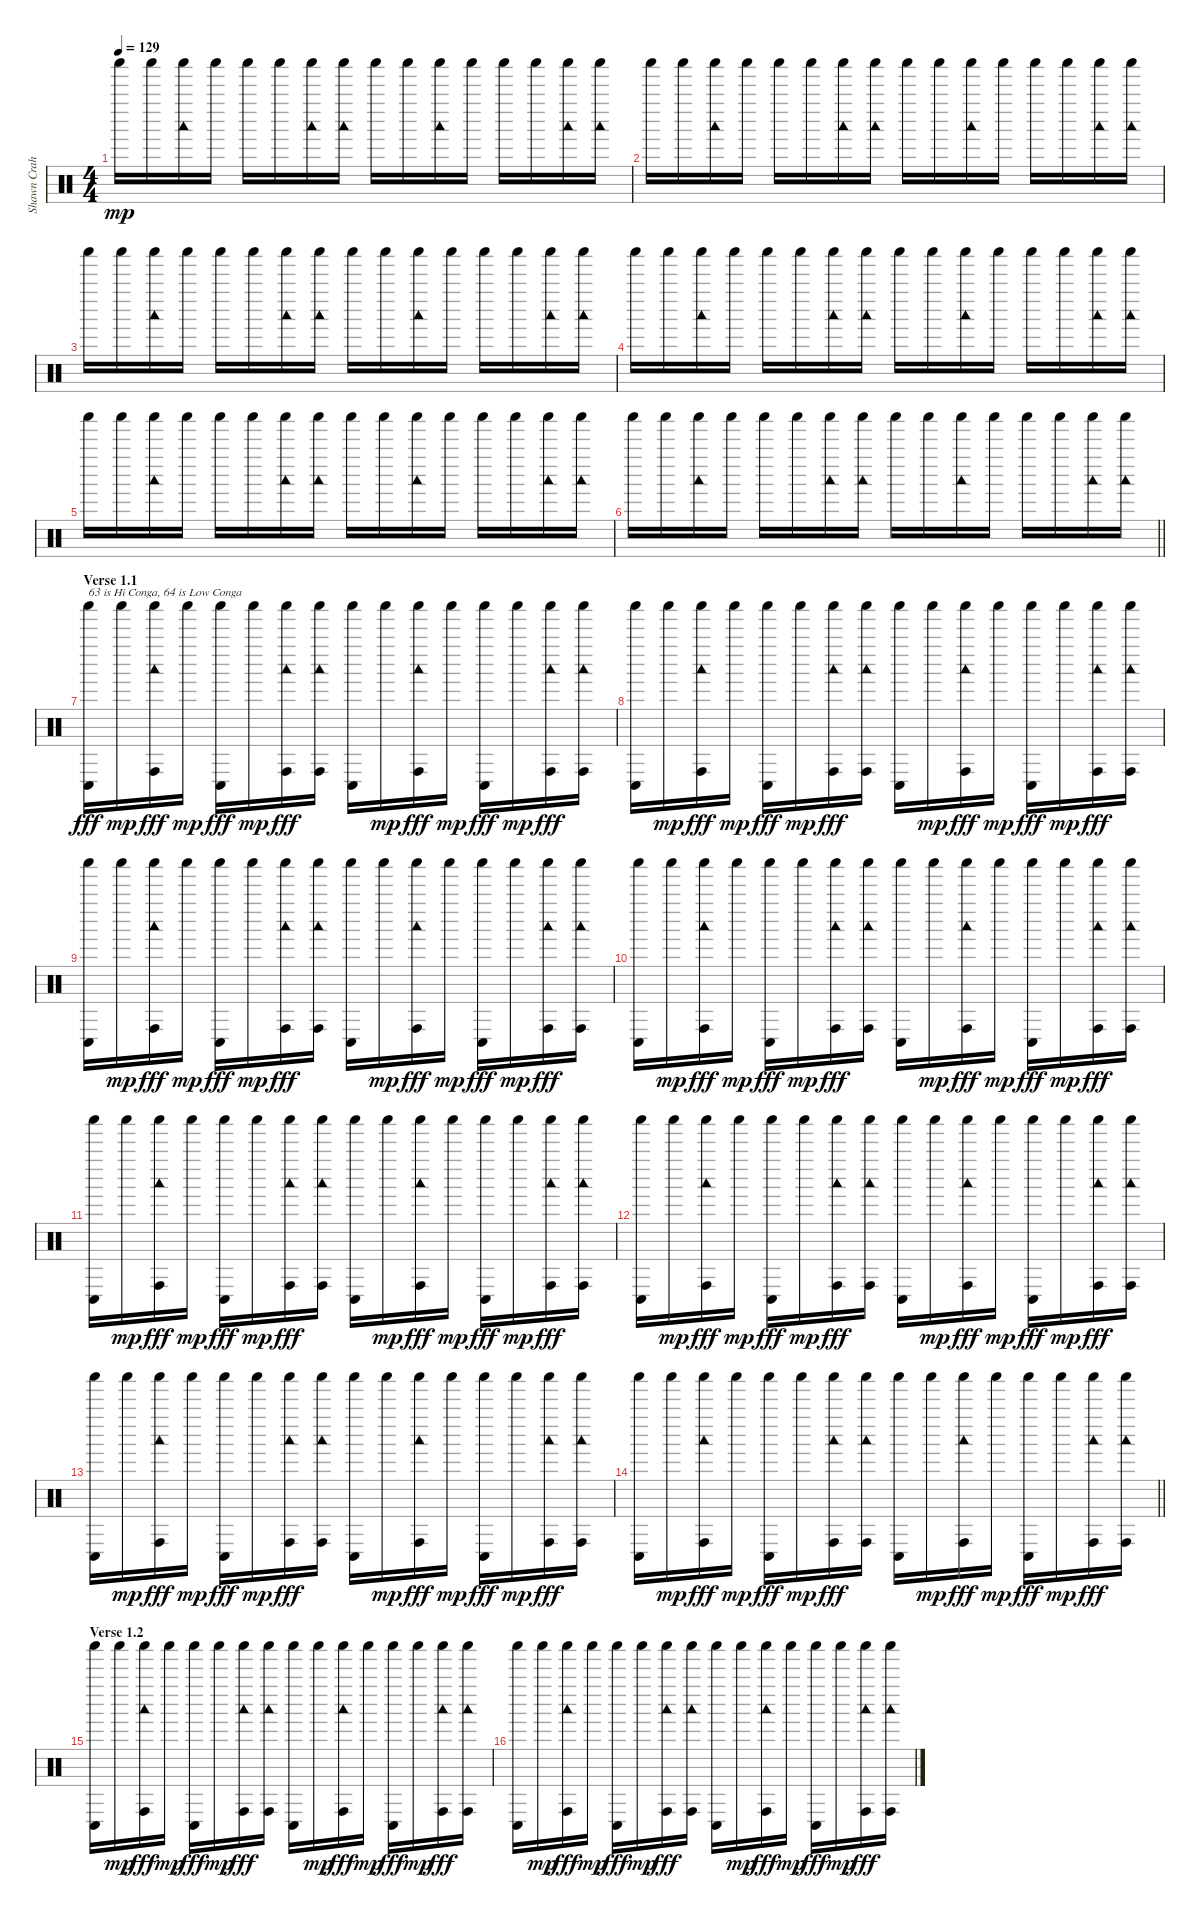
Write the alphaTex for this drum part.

\track ("Shawn Crahan" "Shawn Crah") {instrument percussion}
\staff {score}
\articulation defaults
\ts (4 4)
\tempo 129
\clef neutral
\ks c "Shaker (hit)".16{dy mp} "Shaker (hit)".16
("Shaker (hit)" "Woodblock low (hit)").16 "Shaker (hit)".16 "Shaker (hit)".16 "Shaker (hit)".16 ("Shaker (hit)" "Woodblock low (hit)").16 ("Shaker (hit)" "Woodblock low (hit)").16 "Shaker (hit)".16 "Shaker (hit)".16 ("Shaker (hit)" "Woodblock low (hit)").16 "Shaker (hit)".16 "Shaker (hit)".16 "Shaker (hit)".16 ("Shaker (hit)" "Woodblock low (hit)").16 ("Shaker (hit)" "Woodblock low (hit)").16 |
"Shaker (hit)".16 "Shaker (hit)".16 ("Shaker (hit)" "Woodblock low (hit)").16 "Shaker (hit)".16 "Shaker (hit)".16 "Shaker (hit)".16 ("Shaker (hit)" "Woodblock low (hit)").16 ("Shaker (hit)" "Woodblock low (hit)").16 "Shaker (hit)".16 "Shaker (hit)".16 ("Shaker (hit)" "Woodblock low (hit)").16 "Shaker (hit)".16 "Shaker (hit)".16 "Shaker (hit)".16 ("Shaker (hit)" "Woodblock low (hit)").16 ("Shaker (hit)" "Woodblock low (hit)").16 |
"Shaker (hit)".16 "Shaker (hit)".16 ("Shaker (hit)" "Woodblock low (hit)").16 "Shaker (hit)".16 "Shaker (hit)".16 "Shaker (hit)".16 ("Shaker (hit)" "Woodblock low (hit)").16 ("Shaker (hit)" "Woodblock low (hit)").16 "Shaker (hit)".16 "Shaker (hit)".16 ("Shaker (hit)" "Woodblock low (hit)").16 "Shaker (hit)".16 "Shaker (hit)".16 "Shaker (hit)".16 ("Shaker (hit)" "Woodblock low (hit)").16 ("Shaker (hit)" "Woodblock low (hit)").16 |
"Shaker (hit)".16 "Shaker (hit)".16 ("Shaker (hit)" "Woodblock low (hit)").16 "Shaker (hit)".16 "Shaker (hit)".16 "Shaker (hit)".16 ("Shaker (hit)" "Woodblock low (hit)").16 ("Shaker (hit)" "Woodblock low (hit)").16 "Shaker (hit)".16 "Shaker (hit)".16 ("Shaker (hit)" "Woodblock low (hit)").16 "Shaker (hit)".16 "Shaker (hit)".16 "Shaker (hit)".16 ("Shaker (hit)" "Woodblock low (hit)").16 ("Shaker (hit)" "Woodblock low (hit)").16 |
"Shaker (hit)".16 "Shaker (hit)".16 ("Shaker (hit)" "Woodblock low (hit)").16 "Shaker (hit)".16 "Shaker (hit)".16 "Shaker (hit)".16 ("Shaker (hit)" "Woodblock low (hit)").16 ("Shaker (hit)" "Woodblock low (hit)").16 "Shaker (hit)".16 "Shaker (hit)".16 ("Shaker (hit)" "Woodblock low (hit)").16 "Shaker (hit)".16 "Shaker (hit)".16 "Shaker (hit)".16 ("Shaker (hit)" "Woodblock low (hit)").16 ("Shaker (hit)" "Woodblock low (hit)").16 |
\barLineRight lightlight "Shaker (hit)".16 "Shaker (hit)".16
("Shaker (hit)" "Woodblock low (hit)").16 "Shaker (hit)".16 "Shaker (hit)".16 "Shaker (hit)".16 ("Shaker (hit)" "Woodblock low (hit)").16 ("Shaker (hit)" "Woodblock low (hit)").16 "Shaker (hit)".16 "Shaker (hit)".16 ("Shaker (hit)" "Woodblock low (hit)").16 "Shaker (hit)".16 "Shaker (hit)".16 "Shaker (hit)".16 ("Shaker (hit)" "Woodblock low (hit)").16 ("Shaker (hit)" "Woodblock low (hit)").16 |
\section ("" "Verse 1.1")
("Shaker (hit)" "Conga low (hit)").16{txt "63 is Hi Conga, 64 is Low Conga" dy fff} "Shaker (hit)".16{dy mp} ("Shaker (hit)" "Woodblock low (hit)" "Conga high (hit)").16{dy fff} "Shaker (hit)".16{dy mp} ("Shaker (hit)" "Conga low (hit)").16{dy fff} "Shaker (hit)".16{dy mp} ("Shaker (hit)" "Woodblock low (hit)" "Conga high (hit)").16{dy fff} ("Shaker (hit)" "Woodblock low (hit)" "Conga high (hit)").16 ("Shaker (hit)" "Conga low (hit)").16 "Shaker (hit)".16{dy mp} ("Shaker (hit)" "Woodblock low (hit)" "Conga high (hit)").16{dy fff} "Shaker (hit)".16{dy mp} ("Shaker (hit)" "Conga low (hit)").16{dy fff} "Shaker (hit)".16{dy mp} ("Shaker (hit)" "Woodblock low (hit)" "Conga high (hit)").16{dy fff} ("Shaker (hit)" "Woodblock low (hit)" "Conga high (hit)").16 |
("Shaker (hit)" "Conga low (hit)").16 "Shaker (hit)".16{dy mp} ("Shaker (hit)" "Woodblock low (hit)" "Conga high (hit)").16{dy fff} "Shaker (hit)".16{dy mp} ("Shaker (hit)" "Conga low (hit)").16{dy fff} "Shaker (hit)".16{dy mp} ("Shaker (hit)" "Woodblock low (hit)" "Conga high (hit)").16{dy fff} ("Shaker (hit)" "Woodblock low (hit)" "Conga high (hit)").16 ("Shaker (hit)" "Conga low (hit)").16 "Shaker (hit)".16{dy mp} ("Shaker (hit)" "Woodblock low (hit)" "Conga high (hit)").16{dy fff} "Shaker (hit)".16{dy mp} ("Shaker (hit)" "Conga low (hit)").16{dy fff} "Shaker (hit)".16{dy mp} ("Shaker (hit)" "Woodblock low (hit)" "Conga high (hit)").16{dy fff} ("Shaker (hit)" "Woodblock low (hit)" "Conga high (hit)").16 |
("Shaker (hit)" "Conga low (hit)").16 "Shaker (hit)".16{dy mp} ("Shaker (hit)" "Woodblock low (hit)" "Conga high (hit)").16{dy fff} "Shaker (hit)".16{dy mp} ("Shaker (hit)" "Conga low (hit)").16{dy fff} "Shaker (hit)".16{dy mp} ("Shaker (hit)" "Woodblock low (hit)" "Conga high (hit)").16{dy fff} ("Shaker (hit)" "Woodblock low (hit)" "Conga high (hit)").16 ("Shaker (hit)" "Conga low (hit)").16 "Shaker (hit)".16{dy mp} ("Shaker (hit)" "Woodblock low (hit)" "Conga high (hit)").16{dy fff} "Shaker (hit)".16{dy mp} ("Shaker (hit)" "Conga low (hit)").16{dy fff} "Shaker (hit)".16{dy mp} ("Shaker (hit)" "Woodblock low (hit)" "Conga high (hit)").16{dy fff} ("Shaker (hit)" "Woodblock low (hit)" "Conga high (hit)").16 |
("Shaker (hit)" "Conga low (hit)").16 "Shaker (hit)".16{dy mp} ("Shaker (hit)" "Woodblock low (hit)" "Conga high (hit)").16{dy fff} "Shaker (hit)".16{dy mp} ("Shaker (hit)" "Conga low (hit)").16{dy fff} "Shaker (hit)".16{dy mp} ("Shaker (hit)" "Woodblock low (hit)" "Conga high (hit)").16{dy fff} ("Shaker (hit)" "Woodblock low (hit)" "Conga high (hit)").16 ("Shaker (hit)" "Conga low (hit)").16 "Shaker (hit)".16{dy mp} ("Shaker (hit)" "Woodblock low (hit)" "Conga high (hit)").16{dy fff} "Shaker (hit)".16{dy mp} ("Shaker (hit)" "Conga low (hit)").16{dy fff} "Shaker (hit)".16{dy mp} ("Shaker (hit)" "Woodblock low (hit)" "Conga high (hit)").16{dy fff} ("Shaker (hit)" "Woodblock low (hit)" "Conga high (hit)").16 |
("Shaker (hit)" "Conga low (hit)").16 "Shaker (hit)".16{dy mp} ("Shaker (hit)" "Woodblock low (hit)" "Conga high (hit)").16{dy fff} "Shaker (hit)".16{dy mp} ("Shaker (hit)" "Conga low (hit)").16{dy fff} "Shaker (hit)".16{dy mp} ("Shaker (hit)" "Woodblock low (hit)" "Conga high (hit)").16{dy fff} ("Shaker (hit)" "Woodblock low (hit)" "Conga high (hit)").16 ("Shaker (hit)" "Conga low (hit)").16 "Shaker (hit)".16{dy mp} ("Shaker (hit)" "Woodblock low (hit)" "Conga high (hit)").16{dy fff} "Shaker (hit)".16{dy mp} ("Shaker (hit)" "Conga low (hit)").16{dy fff} "Shaker (hit)".16{dy mp} ("Shaker (hit)" "Woodblock low (hit)" "Conga high (hit)").16{dy fff} ("Shaker (hit)" "Woodblock low (hit)" "Conga high (hit)").16 |
("Shaker (hit)" "Conga low (hit)").16 "Shaker (hit)".16{dy mp} ("Shaker (hit)" "Woodblock low (hit)" "Conga high (hit)").16{dy fff} "Shaker (hit)".16{dy mp} ("Shaker (hit)" "Conga low (hit)").16{dy fff} "Shaker (hit)".16{dy mp} ("Shaker (hit)" "Woodblock low (hit)" "Conga high (hit)").16{dy fff} ("Shaker (hit)" "Woodblock low (hit)" "Conga high (hit)").16 ("Shaker (hit)" "Conga low (hit)").16 "Shaker (hit)".16{dy mp} ("Shaker (hit)" "Woodblock low (hit)" "Conga high (hit)").16{dy fff} "Shaker (hit)".16{dy mp} ("Shaker (hit)" "Conga low (hit)").16{dy fff} "Shaker (hit)".16{dy mp} ("Shaker (hit)" "Woodblock low (hit)" "Conga high (hit)").16{dy fff} ("Shaker (hit)" "Woodblock low (hit)" "Conga high (hit)").16 |
("Shaker (hit)" "Conga low (hit)").16 "Shaker (hit)".16{dy mp} ("Shaker (hit)" "Woodblock low (hit)" "Conga high (hit)").16{dy fff} "Shaker (hit)".16{dy mp} ("Shaker (hit)" "Conga low (hit)").16{dy fff} "Shaker (hit)".16{dy mp} ("Shaker (hit)" "Woodblock low (hit)" "Conga high (hit)").16{dy fff} ("Shaker (hit)" "Woodblock low (hit)" "Conga high (hit)").16 ("Shaker (hit)" "Conga low (hit)").16 "Shaker (hit)".16{dy mp} ("Shaker (hit)" "Woodblock low (hit)" "Conga high (hit)").16{dy fff} "Shaker (hit)".16{dy mp} ("Shaker (hit)" "Conga low (hit)").16{dy fff} "Shaker (hit)".16{dy mp} ("Shaker (hit)" "Woodblock low (hit)" "Conga high (hit)").16{dy fff} ("Shaker (hit)" "Woodblock low (hit)" "Conga high (hit)").16 |
\barLineRight lightlight
("Shaker (hit)" "Conga low (hit)").16 "Shaker (hit)".16{dy mp} ("Shaker (hit)" "Woodblock low (hit)" "Conga high (hit)").16{dy fff} "Shaker (hit)".16{dy mp} ("Shaker (hit)" "Conga low (hit)").16{dy fff} "Shaker (hit)".16{dy mp} ("Shaker (hit)" "Woodblock low (hit)" "Conga high (hit)").16{dy fff} ("Shaker (hit)" "Woodblock low (hit)" "Conga high (hit)").16 ("Shaker (hit)" "Conga low (hit)").16 "Shaker (hit)".16{dy mp} ("Shaker (hit)" "Woodblock low (hit)" "Conga high (hit)").16{dy fff} "Shaker (hit)".16{dy mp} ("Shaker (hit)" "Conga low (hit)").16{dy fff} "Shaker (hit)".16{dy mp} ("Shaker (hit)" "Woodblock low (hit)" "Conga high (hit)").16{dy fff} ("Shaker (hit)" "Woodblock low (hit)" "Conga high (hit)").16 |
\section ("" "Verse 1.2")
("Shaker (hit)" "Conga low (hit)").16 "Shaker (hit)".16{dy mp} ("Shaker (hit)" "Woodblock low (hit)" "Conga high (hit)").16{dy fff} "Shaker (hit)".16{dy mp} ("Shaker (hit)" "Conga low (hit)").16{dy fff} "Shaker (hit)".16{dy mp} ("Shaker (hit)" "Woodblock low (hit)" "Conga high (hit)").16{dy fff} ("Shaker (hit)" "Woodblock low (hit)" "Conga high (hit)").16 ("Shaker (hit)" "Conga low (hit)").16 "Shaker (hit)".16{dy mp} ("Shaker (hit)" "Woodblock low (hit)" "Conga high (hit)").16{dy fff} "Shaker (hit)".16{dy mp} ("Shaker (hit)" "Conga low (hit)").16{dy fff} "Shaker (hit)".16{dy mp} ("Shaker (hit)" "Woodblock low (hit)" "Conga high (hit)").16{dy fff} ("Shaker (hit)" "Woodblock low (hit)" "Conga high (hit)").16 |
("Shaker (hit)" "Conga low (hit)").16 "Shaker (hit)".16{dy mp} ("Shaker (hit)" "Woodblock low (hit)" "Conga high (hit)").16{dy fff} "Shaker (hit)".16{dy mp} ("Shaker (hit)" "Conga low (hit)").16{dy fff} "Shaker (hit)".16{dy mp} ("Shaker (hit)" "Woodblock low (hit)" "Conga high (hit)").16{dy fff} ("Shaker (hit)" "Woodblock low (hit)" "Conga high (hit)").16 ("Shaker (hit)" "Conga low (hit)").16 "Shaker (hit)".16{dy mp} ("Shaker (hit)" "Woodblock low (hit)" "Conga high (hit)").16{dy fff} "Shaker (hit)".16{dy mp} ("Shaker (hit)" "Conga low (hit)").16{dy fff} "Shaker (hit)".16{dy mp} ("Shaker (hit)" "Woodblock low (hit)" "Conga high (hit)").16{dy fff} ("Shaker (hit)" "Woodblock low (hit)" "Conga high (hit)").16
